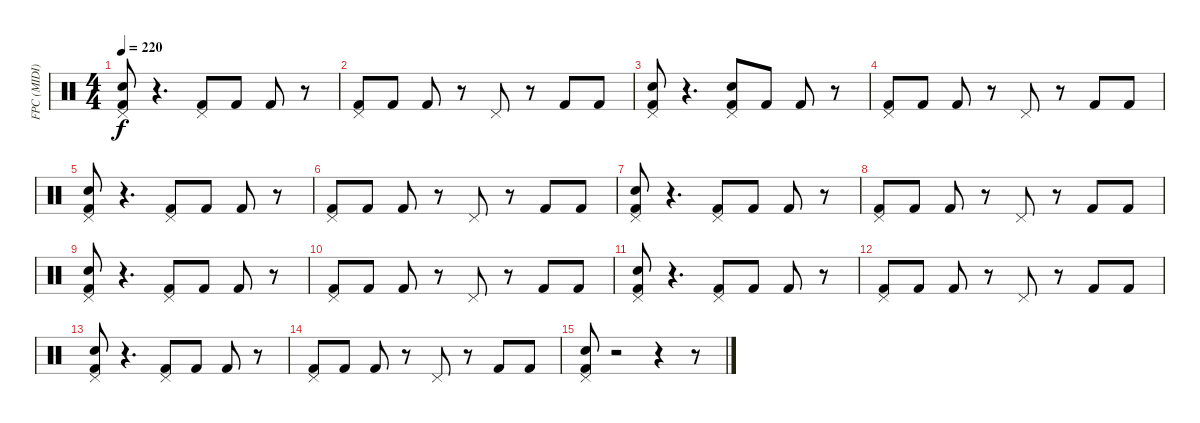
\track ("FPC (MIDI)" "FPC (MIDI)") {instrument percussion}
\staff {score}
\articulation defaults
\ts (4 4)
\tempo 220
\clef neutral
\ks c
("Kick (hit) 2" "Pedal Hi-Hat (hit)" "Snare (hit) 2").8{dy f} r.4{d} ("Pedal Hi-Hat (hit)" "Kick (hit) 2").8 "Kick (hit) 2".8 "Kick (hit) 2".8 r.8 |
("Kick (hit) 2" "Pedal Hi-Hat (hit)").8 "Kick (hit) 2".8 "Kick (hit) 2".8 r.8 "Pedal Hi-Hat (hit)".8 r.8 "Kick (hit) 2".8 "Kick (hit) 2".8 |
("Snare (hit) 2" "Pedal Hi-Hat (hit)" "Kick (hit) 2").8 r.4{d} ("Snare (hit) 2" "Pedal Hi-Hat (hit)" "Kick (hit) 2").8 "Kick (hit) 2".8 "Kick (hit) 2".8 r.8 |
("Pedal Hi-Hat (hit)" "Kick (hit) 2").8 "Kick (hit) 2".8 "Kick (hit) 2".8 r.8 "Pedal Hi-Hat (hit)".8 r.8 "Kick (hit) 2".8 "Kick (hit) 2".8 |
("Snare (hit) 2" "Pedal Hi-Hat (hit)" "Kick (hit) 2").8 r.4{d} ("Pedal Hi-Hat (hit)" "Kick (hit) 2").8 "Kick (hit) 2".8 "Kick (hit) 2".8 r.8 |
("Kick (hit) 2" "Pedal Hi-Hat (hit)").8 "Kick (hit) 2".8 "Kick (hit) 2".8 r.8 "Pedal Hi-Hat (hit)".8 r.8 "Kick (hit) 2".8 "Kick (hit) 2".8 |
("Snare (hit) 2" "Pedal Hi-Hat (hit)" "Kick (hit) 2").8 r.4{d} ("Kick (hit) 2" "Pedal Hi-Hat (hit)").8 "Kick (hit) 2".8 "Kick (hit) 2".8 r.8 |
("Kick (hit) 2" "Pedal Hi-Hat (hit)").8 "Kick (hit) 2".8 "Kick (hit) 2".8 r.8 "Pedal Hi-Hat (hit)".8 r.8 "Kick (hit) 2".8 "Kick (hit) 2".8 |
("Kick (hit) 2" "Pedal Hi-Hat (hit)" "Snare (hit) 2").8 r.4{d} ("Kick (hit) 2" "Pedal Hi-Hat (hit)").8 "Kick (hit) 2".8 "Kick (hit) 2".8 r.8 |
("Pedal Hi-Hat (hit)" "Kick (hit) 2").8 "Kick (hit) 2".8 "Kick (hit) 2".8 r.8 "Pedal Hi-Hat (hit)".8 r.8 "Kick (hit) 2".8 "Kick (hit) 2".8 |
("Snare (hit) 2" "Pedal Hi-Hat (hit)" "Kick (hit) 2").8 r.4{d} ("Pedal Hi-Hat (hit)" "Kick (hit) 2").8 "Kick (hit) 2".8 "Kick (hit) 2".8 r.8 |
("Pedal Hi-Hat (hit)" "Kick (hit) 2").8 "Kick (hit) 2".8 "Kick (hit) 2".8 r.8 "Pedal Hi-Hat (hit)".8 r.8 "Kick (hit) 2".8 "Kick (hit) 2".8 |
("Snare (hit) 2" "Pedal Hi-Hat (hit)" "Kick (hit) 2").8 r.4{d} ("Pedal Hi-Hat (hit)" "Kick (hit) 2").8 "Kick (hit) 2".8 "Kick (hit) 2".8 r.8 |
("Kick (hit) 2" "Pedal Hi-Hat (hit)").8 "Kick (hit) 2".8 "Kick (hit) 2".8 r.8 "Pedal Hi-Hat (hit)".8 r.8 "Kick (hit) 2".8 "Kick (hit) 2".8 |
("Kick (hit) 2" "Pedal Hi-Hat (hit)" "Snare (hit) 2").8 r.2 r.4 r.8
